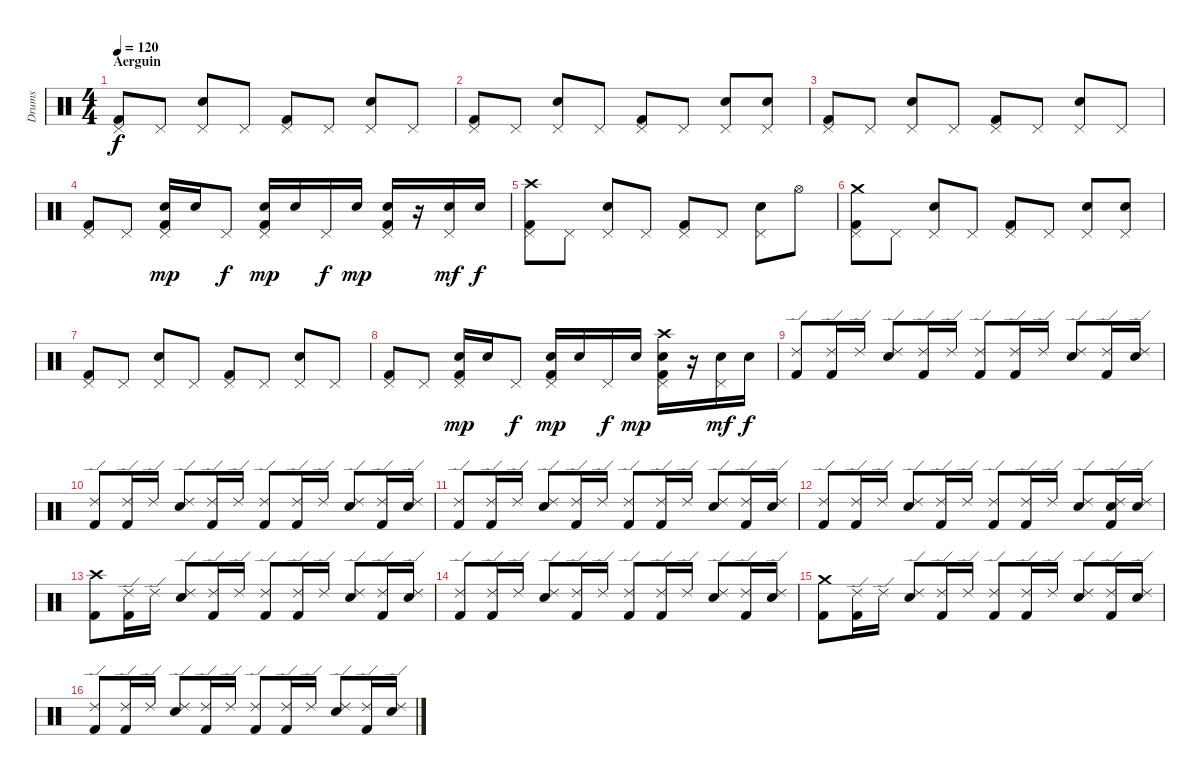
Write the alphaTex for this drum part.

\track ("Drums" "Drums") {instrument percussion}
\staff {score}
\articulation defaults
\ts (4 4)
\section ("" "Aerguin")
\tempo 120
\clef neutral
\ks c
("Pedal Hi-Hat (hit)" "Kick (hit) 2").8{dy f} "Pedal Hi-Hat (hit)".8 ("Pedal Hi-Hat (hit)" "Electric Snare (hit)").8 "Pedal Hi-Hat (hit)".8 ("Pedal Hi-Hat (hit)" "Kick (hit) 2").8 "Pedal Hi-Hat (hit)".8 ("Pedal Hi-Hat (hit)" "Electric Snare (hit)").8 "Pedal Hi-Hat (hit)".8 |
("Pedal Hi-Hat (hit)" "Kick (hit) 2").8 "Pedal Hi-Hat (hit)".8 ("Pedal Hi-Hat (hit)" "Electric Snare (hit)").8 "Pedal Hi-Hat (hit)".8 ("Pedal Hi-Hat (hit)" "Kick (hit) 2").8 "Pedal Hi-Hat (hit)".8 ("Pedal Hi-Hat (hit)" "Electric Snare (hit)").8 ("Pedal Hi-Hat (hit)" "Electric Snare (hit)").8 |
("Pedal Hi-Hat (hit)" "Kick (hit) 2").8 "Pedal Hi-Hat (hit)".8 ("Pedal Hi-Hat (hit)" "Electric Snare (hit)").8 "Pedal Hi-Hat (hit)".8 ("Pedal Hi-Hat (hit)" "Kick (hit) 2").8 "Pedal Hi-Hat (hit)".8 ("Pedal Hi-Hat (hit)" "Electric Snare (hit)").8 "Pedal Hi-Hat (hit)".8 |
("Pedal Hi-Hat (hit)" "Kick (hit) 2").8 "Pedal Hi-Hat (hit)".8 ("Pedal Hi-Hat (hit)" "Electric Snare (hit)" "Kick (hit) 2").16{dy mp} "Electric Snare (hit)".16 "Pedal Hi-Hat (hit)".8{dy f} ("Pedal Hi-Hat (hit)" "Electric Snare (hit)" "Kick (hit) 2").16{dy mp} "Electric Snare (hit)".16 "Pedal Hi-Hat (hit)".16{dy f} "Electric Snare (hit)".16{dy mp} ("Pedal Hi-Hat (hit)" "Electric Snare (hit)" "Kick (hit) 2").16 r.16 ("Pedal Hi-Hat (hit)" "Electric Snare (hit)").16{dy mf} "Electric Snare (hit)".16{dy f} |
("Crash high (hit)" "Pedal Hi-Hat (hit)" "Kick (hit) 2").8 "Pedal Hi-Hat (hit)".8 ("Pedal Hi-Hat (hit)" "Electric Snare (hit)").8 "Pedal Hi-Hat (hit)".8 ("Pedal Hi-Hat (hit)" "Kick (hit) 2").8 "Pedal Hi-Hat (hit)".8 ("Pedal Hi-Hat (hit)" "Electric Snare (hit)").8 "Hi-Hat (open)".8 |
("Crash medium (hit)" "Pedal Hi-Hat (hit)" "Kick (hit) 2").8 "Pedal Hi-Hat (hit)".8 ("Pedal Hi-Hat (hit)" "Electric Snare (hit)").8 "Pedal Hi-Hat (hit)".8 ("Pedal Hi-Hat (hit)" "Kick (hit) 2").8 "Pedal Hi-Hat (hit)".8 ("Pedal Hi-Hat (hit)" "Electric Snare (hit)").8 ("Pedal Hi-Hat (hit)" "Electric Snare (hit)").8 |
("Pedal Hi-Hat (hit)" "Kick (hit) 2").8 "Pedal Hi-Hat (hit)".8 ("Pedal Hi-Hat (hit)" "Electric Snare (hit)").8 "Pedal Hi-Hat (hit)".8 ("Pedal Hi-Hat (hit)" "Kick (hit) 2").8 "Pedal Hi-Hat (hit)".8 ("Pedal Hi-Hat (hit)" "Electric Snare (hit)").8 "Pedal Hi-Hat (hit)".8 |
("Pedal Hi-Hat (hit)" "Kick (hit) 2").8 "Pedal Hi-Hat (hit)".8 ("Pedal Hi-Hat (hit)" "Electric Snare (hit)" "Kick (hit) 2").16{dy mp} "Electric Snare (hit)".16 "Pedal Hi-Hat (hit)".8{dy f} ("Pedal Hi-Hat (hit)" "Electric Snare (hit)" "Kick (hit) 2").16{dy mp} "Electric Snare (hit)".16 "Pedal Hi-Hat (hit)".16{dy f} "Electric Snare (hit)".16{dy mp} ("Crash high (hit)" "Pedal Hi-Hat (hit)" "Electric Snare (hit)" "Kick (hit) 2").16 r.16 ("Pedal Hi-Hat (hit)" "Electric Snare (hit)").16{dy mf} "Electric Snare (hit)".16{dy f} |
("Ride (edge) 2" "Kick (hit) 2").8 ("Ride (edge) 2" "Kick (hit) 2").16 "Ride (edge) 2".16 ("Ride (edge) 2" "Electric Snare (hit)").8 ("Ride (edge) 2" "Kick (hit) 2").16 "Ride (edge) 2".16 ("Ride (edge) 2" "Kick (hit) 2").8 ("Ride (edge) 2" "Kick (hit) 2").16 "Ride (edge) 2".16 ("Ride (edge) 2" "Electric Snare (hit)").8 ("Ride (edge) 2" "Kick (hit) 2").16 ("Ride (edge) 2" "Electric Snare (hit)").16 |
("Ride (edge) 2" "Kick (hit) 2").8 ("Ride (edge) 2" "Kick (hit) 2").16 "Ride (edge) 2".16 ("Ride (edge) 2" "Electric Snare (hit)").8 ("Ride (edge) 2" "Kick (hit) 2").16 "Ride (edge) 2".16 ("Ride (edge) 2" "Kick (hit) 2").8 ("Ride (edge) 2" "Kick (hit) 2").16 "Ride (edge) 2".16 ("Ride (edge) 2" "Electric Snare (hit)").8 ("Ride (edge) 2" "Kick (hit) 2").16 ("Ride (edge) 2" "Electric Snare (hit)").16 |
("Ride (edge) 2" "Kick (hit) 2").8 ("Ride (edge) 2" "Kick (hit) 2").16 "Ride (edge) 2".16 ("Ride (edge) 2" "Electric Snare (hit)").8 ("Ride (edge) 2" "Kick (hit) 2").16 "Ride (edge) 2".16 ("Ride (edge) 2" "Kick (hit) 2").8 ("Ride (edge) 2" "Kick (hit) 2").16 "Ride (edge) 2".16 ("Ride (edge) 2" "Electric Snare (hit)").8 ("Ride (edge) 2" "Kick (hit) 2").16 ("Ride (edge) 2" "Electric Snare (hit)").16 |
("Ride (edge) 2" "Kick (hit) 2").8 ("Ride (edge) 2" "Kick (hit) 2").16 "Ride (edge) 2".16 ("Ride (edge) 2" "Electric Snare (hit)").8 ("Ride (edge) 2" "Kick (hit) 2").16 "Ride (edge) 2".16 ("Ride (edge) 2" "Kick (hit) 2").8 ("Ride (edge) 2" "Kick (hit) 2").16 "Ride (edge) 2".16 ("Ride (edge) 2" "Electric Snare (hit)").8 ("Ride (edge) 2" "Electric Snare (hit)" "Kick (hit) 2").16 ("Ride (edge) 2" "Electric Snare (hit)").16 |
("Crash high (hit)" "Kick (hit) 2").8 ("Ride (edge) 2" "Kick (hit) 2").16 "Ride (edge) 2".16 ("Ride (edge) 2" "Electric Snare (hit)").8 ("Ride (edge) 2" "Kick (hit) 2").16 "Ride (edge) 2".16 ("Ride (edge) 2" "Kick (hit) 2").8 ("Ride (edge) 2" "Kick (hit) 2").16 "Ride (edge) 2".16 ("Ride (edge) 2" "Electric Snare (hit)").8 ("Ride (edge) 2" "Kick (hit) 2").16 ("Ride (edge) 2" "Electric Snare (hit)").16 |
("Ride (edge) 2" "Kick (hit) 2").8 ("Ride (edge) 2" "Kick (hit) 2").16 "Ride (edge) 2".16 ("Ride (edge) 2" "Electric Snare (hit)").8 ("Ride (edge) 2" "Kick (hit) 2").16 "Ride (edge) 2".16 ("Ride (edge) 2" "Kick (hit) 2").8 ("Ride (edge) 2" "Kick (hit) 2").16 "Ride (edge) 2".16 ("Ride (edge) 2" "Electric Snare (hit)").8 ("Ride (edge) 2" "Kick (hit) 2").16 ("Ride (edge) 2" "Electric Snare (hit)").16 |
("Crash medium (hit)" "Kick (hit) 2").8 ("Ride (edge) 2" "Kick (hit) 2").16 "Ride (edge) 2".16 ("Ride (edge) 2" "Electric Snare (hit)").8 ("Ride (edge) 2" "Kick (hit) 2").16 "Ride (edge) 2".16 ("Ride (edge) 2" "Kick (hit) 2").8 ("Ride (edge) 2" "Kick (hit) 2").16 "Ride (edge) 2".16 ("Ride (edge) 2" "Electric Snare (hit)").8 ("Ride (edge) 2" "Kick (hit) 2").16 ("Ride (edge) 2" "Electric Snare (hit)").16 |
("Ride (edge) 2" "Kick (hit) 2").8 ("Ride (edge) 2" "Kick (hit) 2").16 "Ride (edge) 2".16 ("Ride (edge) 2" "Electric Snare (hit)").8 ("Ride (edge) 2" "Kick (hit) 2").16 "Ride (edge) 2".16 ("Ride (edge) 2" "Kick (hit) 2").8 ("Ride (edge) 2" "Kick (hit) 2").16 "Ride (edge) 2".16 ("Ride (edge) 2" "Electric Snare (hit)").8 ("Ride (edge) 2" "Kick (hit) 2").16 ("Ride (edge) 2" "Electric Snare (hit)").16
